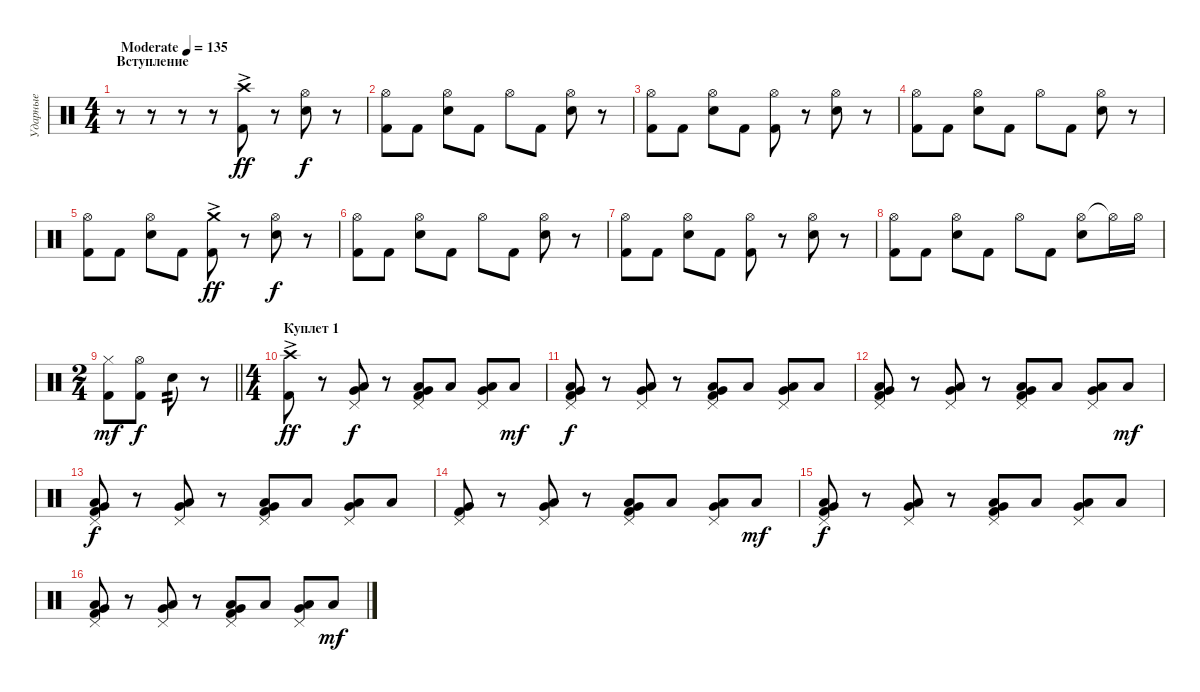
\track ("Ударные" "Ударные") {instrument percussion}
\staff
\articulation defaults
\ts (4 4)
\section ("" "Вступление")
\tempo (135 "Moderate")
\clef neutral
\ks c
r.8{dy ff} r.8 r.8 r.8 ("Crash high (hit)"{ac} "Kick (hit) 2").8 r.8 ("Hi-Hat (open)" "Electric Snare (hit)").8{dy f} r.8 |
("Hi-Hat (open)" "Kick (hit) 2").8 "Kick (hit) 2".8 ("Hi-Hat (open)" "Electric Snare (hit)").8 "Kick (hit) 2".8 "Hi-Hat (open)".8 "Kick (hit) 2".8 ("Hi-Hat (open)" "Electric Snare (hit)").8 r.8 |
("Hi-Hat (open)" "Kick (hit) 2").8 "Kick (hit) 2".8 ("Hi-Hat (open)" "Electric Snare (hit)").8 "Kick (hit) 2".8 ("Hi-Hat (open)" "Kick (hit) 2").8 r.8 ("Hi-Hat (open)" "Electric Snare (hit)").8 r.8 |
("Hi-Hat (open)" "Kick (hit) 2").8 "Kick (hit) 2".8 ("Hi-Hat (open)" "Electric Snare (hit)").8 "Kick (hit) 2".8 "Hi-Hat (open)".8 "Kick (hit) 2".8 ("Hi-Hat (open)" "Electric Snare (hit)").8 r.8 |
("Hi-Hat (open)" "Kick (hit) 2").8 "Kick (hit) 2".8 ("Hi-Hat (open)" "Electric Snare (hit)").8 "Kick (hit) 2".8 ("Crash medium (hit)"{ac} "Kick (hit) 2").8{dy ff} r.8 ("Hi-Hat (open)" "Electric Snare (hit)").8{dy f} r.8 |
("Hi-Hat (open)" "Kick (hit) 2").8 "Kick (hit) 2".8 ("Hi-Hat (open)" "Electric Snare (hit)").8 "Kick (hit) 2".8 "Hi-Hat (open)".8 "Kick (hit) 2".8 ("Hi-Hat (open)" "Electric Snare (hit)").8 r.8 |
("Hi-Hat (open)" "Kick (hit) 2").8 "Kick (hit) 2".8 ("Hi-Hat (open)" "Electric Snare (hit)").8 "Kick (hit) 2".8 ("Hi-Hat (open)" "Kick (hit) 2").8 r.8 ("Hi-Hat (open)" "Electric Snare (hit)").8 r.8 |
("Hi-Hat (open)" "Kick (hit) 2").8 "Kick (hit) 2".8 ("Hi-Hat (open)" "Electric Snare (hit)").8 "Kick (hit) 2".8 "Hi-Hat (open)".8 "Kick (hit) 2".8 ("Hi-Hat (open)" "Electric Snare (hit)").8 "Hi-Hat (open)"{t}.16 "Hi-Hat (open)".16 |
\ts (2 4)
\barLineRight lightlight
("Hi-Hat (closed)" "Kick (hit) 2").8{dy mf} ("Hi-Hat (open)" "Kick (hit) 2").8{dy f} "Electric Snare (hit)".8{tp 2} r.8 |
\ts (4 4)
\section ("" "Куплет 1")
("Crash high (hit)"{ac} "Kick (hit) 2").8{dy ff} r.8 ("Pedal Hi-Hat (hit)" "Very Low Tom (hit)" "Low Floor Tom (hit)").8{dy f} r.8 ("Pedal Hi-Hat (hit)" "Very Low Tom (hit)" "Low Floor Tom (hit)" "Kick (hit) 2").8 "Low Floor Tom (hit)".8 ("Pedal Hi-Hat (hit)" "Very Low Tom (hit)" "Low Floor Tom (hit)").8 "Low Floor Tom (hit)".8{dy mf} |
("Pedal Hi-Hat (hit)" "Very Low Tom (hit)" "Low Floor Tom (hit)" "Kick (hit) 2").8{dy f} r.8 ("Pedal Hi-Hat (hit)" "Very Low Tom (hit)" "Low Floor Tom (hit)").8 r.8 ("Pedal Hi-Hat (hit)" "Very Low Tom (hit)" "Low Floor Tom (hit)" "Kick (hit) 2").8 "Low Floor Tom (hit)".8 ("Pedal Hi-Hat (hit)" "Very Low Tom (hit)" "Low Floor Tom (hit)").8 "Low Floor Tom (hit)".8 |
("Pedal Hi-Hat (hit)" "Very Low Tom (hit)" "Low Floor Tom (hit)" "Kick (hit) 2").8 r.8 ("Pedal Hi-Hat (hit)" "Very Low Tom (hit)" "Low Floor Tom (hit)").8 r.8 ("Pedal Hi-Hat (hit)" "Very Low Tom (hit)" "Low Floor Tom (hit)" "Kick (hit) 2").8 "Low Floor Tom (hit)".8 ("Pedal Hi-Hat (hit)" "Very Low Tom (hit)" "Low Floor Tom (hit)").8 "Low Floor Tom (hit)".8{dy mf} |
("Pedal Hi-Hat (hit)" "Very Low Tom (hit)" "Low Floor Tom (hit)" "Kick (hit) 2").8{dy f} r.8 ("Pedal Hi-Hat (hit)" "Very Low Tom (hit)" "Low Floor Tom (hit)").8 r.8 ("Pedal Hi-Hat (hit)" "Very Low Tom (hit)" "Low Floor Tom (hit)" "Kick (hit) 2").8 "Low Floor Tom (hit)".8 ("Pedal Hi-Hat (hit)" "Very Low Tom (hit)" "Low Floor Tom (hit)").8 "Low Floor Tom (hit)".8 |
("Pedal Hi-Hat (hit)" "Very Low Tom (hit)" "Kick (hit) 2").8 r.8 ("Pedal Hi-Hat (hit)" "Very Low Tom (hit)" "Low Floor Tom (hit)").8 r.8 ("Pedal Hi-Hat (hit)" "Very Low Tom (hit)" "Low Floor Tom (hit)" "Kick (hit) 2").8 "Low Floor Tom (hit)".8 ("Pedal Hi-Hat (hit)" "Very Low Tom (hit)" "Low Floor Tom (hit)").8 "Low Floor Tom (hit)".8{dy mf} |
("Pedal Hi-Hat (hit)" "Very Low Tom (hit)" "Low Floor Tom (hit)" "Kick (hit) 2").8{dy f} r.8 ("Pedal Hi-Hat (hit)" "Very Low Tom (hit)" "Low Floor Tom (hit)").8 r.8 ("Pedal Hi-Hat (hit)" "Very Low Tom (hit)" "Low Floor Tom (hit)" "Kick (hit) 2").8 "Low Floor Tom (hit)".8 ("Pedal Hi-Hat (hit)" "Very Low Tom (hit)" "Low Floor Tom (hit)").8 "Low Floor Tom (hit)".8 |
("Pedal Hi-Hat (hit)" "Very Low Tom (hit)" "Low Floor Tom (hit)" "Kick (hit) 2").8 r.8 ("Pedal Hi-Hat (hit)" "Very Low Tom (hit)" "Low Floor Tom (hit)").8 r.8 ("Pedal Hi-Hat (hit)" "Very Low Tom (hit)" "Low Floor Tom (hit)" "Kick (hit) 2").8 "Low Floor Tom (hit)".8 ("Pedal Hi-Hat (hit)" "Very Low Tom (hit)" "Low Floor Tom (hit)").8 "Low Floor Tom (hit)".8{dy mf}
